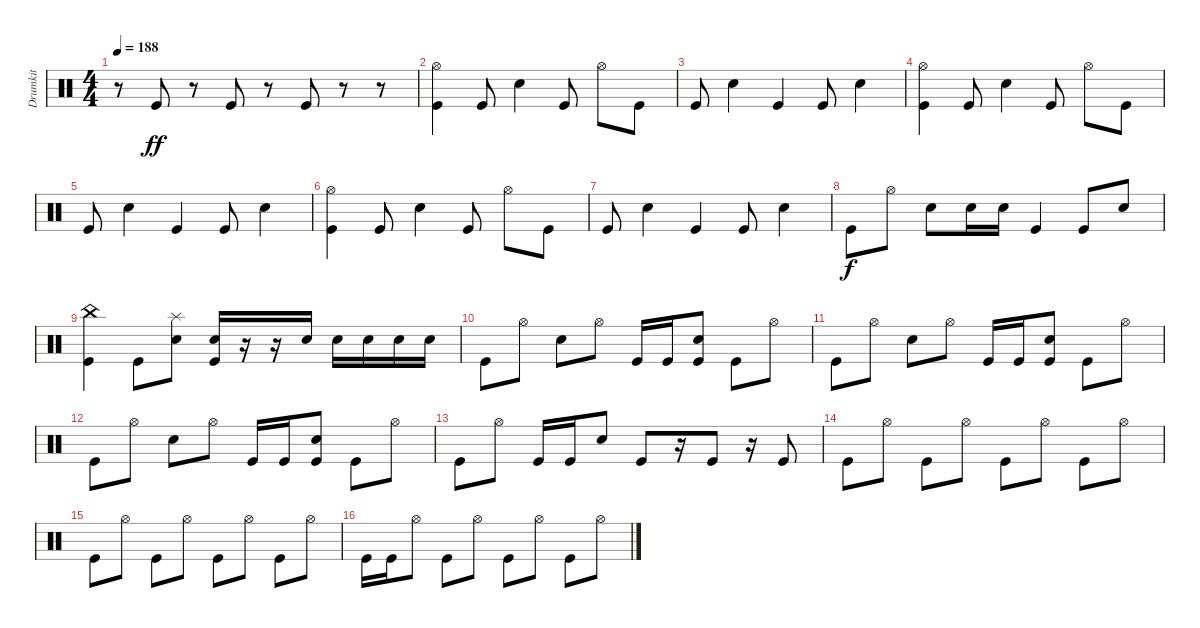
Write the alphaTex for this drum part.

\track ("Drumkit" "Drumkit") {instrument percussion}
\staff {score}
\articulation defaults
\ts (4 4)
\tempo 188
\clef neutral
\ks c
r.8{dy ff} "Kick (hit)".8 r.8 "Kick (hit)".8 r.8 "Kick (hit)".8 r.8 r.8 |
("Kick (hit)" "Hi-Hat (open)").4 "Kick (hit)".8 "Snare (hit) 2".4 "Kick (hit)".8 "Hi-Hat (open)".8 "Kick (hit)".8 |
"Kick (hit)".8 "Snare (hit) 2".4 "Kick (hit)".4 "Kick (hit)".8 "Snare (hit) 2".4 |
("Kick (hit)" "Hi-Hat (open)").4 "Kick (hit)".8 "Snare (hit) 2".4 "Kick (hit)".8 "Hi-Hat (open)".8 "Kick (hit)".8 |
"Kick (hit)".8 "Snare (hit) 2".4 "Kick (hit)".4 "Kick (hit)".8 "Snare (hit) 2".4 |
("Kick (hit)" "Hi-Hat (open)").4 "Kick (hit)".8 "Snare (hit) 2".4 "Kick (hit)".8 "Hi-Hat (open)".8 "Kick (hit)".8 |
"Kick (hit)".8 "Snare (hit) 2".4 "Kick (hit)".4 "Kick (hit)".8 "Snare (hit) 2".4 |
"Kick (hit)".8{dy f} "Hi-Hat (open)".8 "Snare (hit) 2".8 "Snare (hit) 2".16 "Snare (hit) 2".16 "Kick (hit)".4 "Kick (hit)".8 "Snare (hit) 2".8 |
("Kick (hit)" "China (hit)").4 "Kick (hit)".8 ("Snare (hit) 2" "Splash (hit)").8 ("Snare (hit) 2" "Kick (hit)").16 r.16 r.16 "Snare (hit) 2".16 "Snare (hit) 2".16 "Snare (hit) 2".16 "Snare (hit) 2".16 "Snare (hit) 2".16 |
"Kick (hit)".8 "Hi-Hat (open)".8 "Snare (hit) 2".8 "Hi-Hat (open)".8 "Kick (hit)".16 "Kick (hit)".16 ("Kick (hit)" "Snare (hit) 2").8 "Kick (hit)".8 "Hi-Hat (open)".8 |
"Kick (hit)".8 "Hi-Hat (open)".8 "Snare (hit) 2".8 "Hi-Hat (open)".8 "Kick (hit)".16 "Kick (hit)".16 ("Kick (hit)" "Snare (hit) 2").8 "Kick (hit)".8 "Hi-Hat (open)".8 |
"Kick (hit)".8 "Hi-Hat (open)".8 "Snare (hit) 2".8 "Hi-Hat (open)".8 "Kick (hit)".16 "Kick (hit)".16 ("Kick (hit)" "Snare (hit) 2").8 "Kick (hit)".8 "Hi-Hat (open)".8 |
"Kick (hit)".8 "Hi-Hat (open)".8 "Kick (hit)".16 "Kick (hit)".16 "Snare (hit) 2".8 "Kick (hit)".8 r.16 "Kick (hit)".8 r.16 "Kick (hit)".8 |
"Kick (hit)".8 "Hi-Hat (open)".8 "Kick (hit)".8 "Hi-Hat (open)".8 "Kick (hit)".8 "Hi-Hat (open)".8 "Kick (hit)".8 "Hi-Hat (open)".8 |
"Kick (hit)".8 "Hi-Hat (open)".8 "Kick (hit)".8 "Hi-Hat (open)".8 "Kick (hit)".8 "Hi-Hat (open)".8 "Kick (hit)".8 "Hi-Hat (open)".8 |
"Kick (hit)".16 "Kick (hit)".16 "Hi-Hat (open)".8 "Kick (hit)".8 "Hi-Hat (open)".8 "Kick (hit)".8 "Hi-Hat (open)".8 "Kick (hit)".8 "Hi-Hat (open)".8
